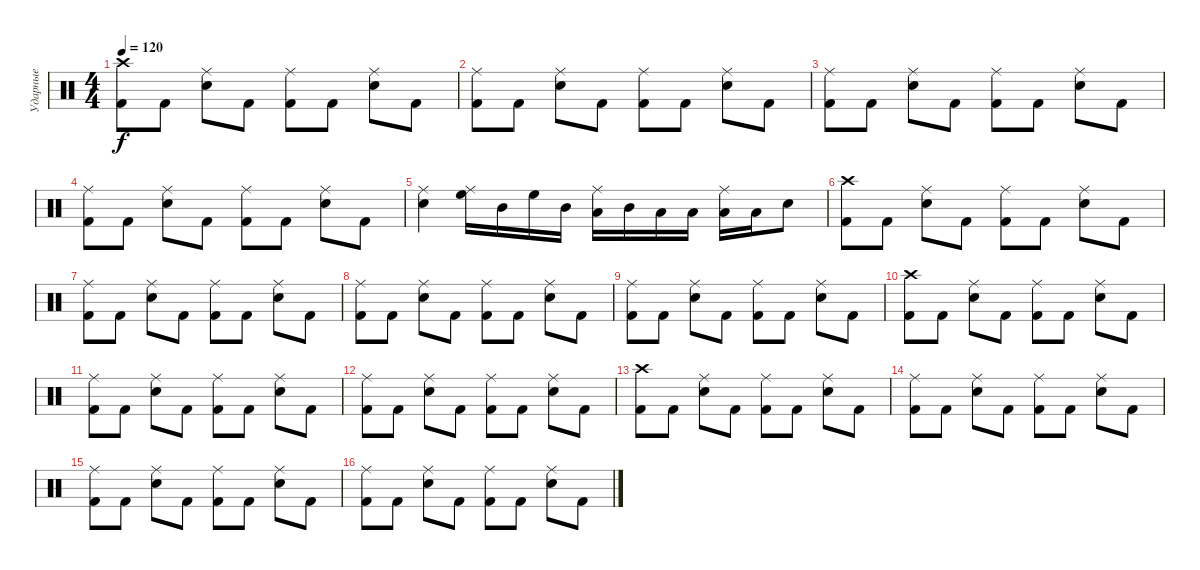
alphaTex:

\track ("Ударные" "Ударные") {instrument percussion}
\staff {score}
\articulation defaults
\ts (4 4)
\tempo 120
\clef neutral
\ks c
("Crash high (hit)" "Kick (hit) 2").8{dy f} "Kick (hit) 2".8 ("Ride (middle)" "Snare (hit) 2").8 "Kick (hit) 2".8 ("Ride (middle)" "Kick (hit) 2").8 "Kick (hit) 2".8 ("Ride (middle)" "Snare (hit) 2").8 "Kick (hit) 2".8 |
("Ride (middle)" "Kick (hit) 2").8 "Kick (hit) 2".8 ("Ride (middle)" "Snare (hit) 2").8 "Kick (hit) 2".8 ("Ride (middle)" "Kick (hit) 2").8 "Kick (hit) 2".8 ("Ride (middle)" "Snare (hit) 2").8 "Kick (hit) 2".8 |
("Ride (middle)" "Kick (hit) 2").8 "Kick (hit) 2".8 ("Ride (middle)" "Snare (hit) 2").8 "Kick (hit) 2".8 ("Ride (middle)" "Kick (hit) 2").8 "Kick (hit) 2".8 ("Ride (middle)" "Snare (hit) 2").8 "Kick (hit) 2".8 |
("Ride (middle)" "Kick (hit) 2").8 "Kick (hit) 2".8 ("Ride (middle)" "Snare (hit) 2").8 "Kick (hit) 2".8 ("Ride (middle)" "Kick (hit) 2").8 "Kick (hit) 2".8 ("Ride (middle)" "Snare (hit) 2").8 "Kick (hit) 2".8 |
("Ride (middle)" "Snare (hit) 2").4 ("Ride (middle)" "High Floor Tom (hit)").16 "Mid Tom (hit)".16 "High Floor Tom (hit)".16 "Mid Tom (hit)".16 ("Ride (middle)" "Low Tom (hit)").16 "Mid Tom (hit)".16 "Low Tom (hit)".16 "Low Floor Tom (hit)".16 ("Ride (middle)" "Low Tom (hit)").16 "Low Floor Tom (hit)".16 "Snare (hit) 2".8 |
("Crash high (hit)" "Kick (hit) 2").8 "Kick (hit) 2".8 ("Ride (middle)" "Snare (hit) 2").8 "Kick (hit) 2".8 ("Ride (middle)" "Kick (hit) 2").8 "Kick (hit) 2".8 ("Ride (middle)" "Snare (hit) 2").8 "Kick (hit) 2".8 |
("Ride (middle)" "Kick (hit) 2").8 "Kick (hit) 2".8 ("Ride (middle)" "Snare (hit) 2").8 "Kick (hit) 2".8 ("Ride (middle)" "Kick (hit) 2").8 "Kick (hit) 2".8 ("Ride (middle)" "Snare (hit) 2").8 "Kick (hit) 2".8 |
("Ride (middle)" "Kick (hit) 2").8 "Kick (hit) 2".8 ("Ride (middle)" "Snare (hit) 2").8 "Kick (hit) 2".8 ("Ride (middle)" "Kick (hit) 2").8 "Kick (hit) 2".8 ("Ride (middle)" "Snare (hit) 2").8 "Kick (hit) 2".8 |
("Ride (middle)" "Kick (hit) 2").8 "Kick (hit) 2".8 ("Ride (middle)" "Snare (hit) 2").8 "Kick (hit) 2".8 ("Ride (middle)" "Kick (hit) 2").8 "Kick (hit) 2".8 ("Ride (middle)" "Snare (hit) 2").8 "Kick (hit) 2".8 |
("Crash high (hit)" "Kick (hit) 2").8 "Kick (hit) 2".8 ("Ride (middle)" "Snare (hit) 2").8 "Kick (hit) 2".8 ("Ride (middle)" "Kick (hit) 2").8 "Kick (hit) 2".8 ("Ride (middle)" "Snare (hit) 2").8 "Kick (hit) 2".8 |
("Ride (middle)" "Kick (hit) 2").8 "Kick (hit) 2".8 ("Ride (middle)" "Snare (hit) 2").8 "Kick (hit) 2".8 ("Ride (middle)" "Kick (hit) 2").8 "Kick (hit) 2".8 ("Ride (middle)" "Snare (hit) 2").8 "Kick (hit) 2".8 |
("Ride (middle)" "Kick (hit) 2").8 "Kick (hit) 2".8 ("Ride (middle)" "Snare (hit) 2").8 "Kick (hit) 2".8 ("Ride (middle)" "Kick (hit) 2").8 "Kick (hit) 2".8 ("Ride (middle)" "Snare (hit) 2").8 "Kick (hit) 2".8 |
("Crash high (hit)" "Kick (hit) 2").8 "Kick (hit) 2".8 ("Ride (middle)" "Snare (hit) 2").8 "Kick (hit) 2".8 ("Ride (middle)" "Kick (hit) 2").8 "Kick (hit) 2".8 ("Ride (middle)" "Snare (hit) 2").8 "Kick (hit) 2".8 |
("Ride (middle)" "Kick (hit) 2").8 "Kick (hit) 2".8 ("Ride (middle)" "Snare (hit) 2").8 "Kick (hit) 2".8 ("Ride (middle)" "Kick (hit) 2").8 "Kick (hit) 2".8 ("Ride (middle)" "Snare (hit) 2").8 "Kick (hit) 2".8 |
("Ride (middle)" "Kick (hit) 2").8 "Kick (hit) 2".8 ("Ride (middle)" "Snare (hit) 2").8 "Kick (hit) 2".8 ("Ride (middle)" "Kick (hit) 2").8 "Kick (hit) 2".8 ("Ride (middle)" "Snare (hit) 2").8 "Kick (hit) 2".8 |
("Ride (middle)" "Kick (hit) 2").8 "Kick (hit) 2".8 ("Ride (middle)" "Snare (hit) 2").8 "Kick (hit) 2".8 ("Ride (middle)" "Kick (hit) 2").8 "Kick (hit) 2".8 ("Ride (middle)" "Snare (hit) 2").8 "Kick (hit) 2".8
